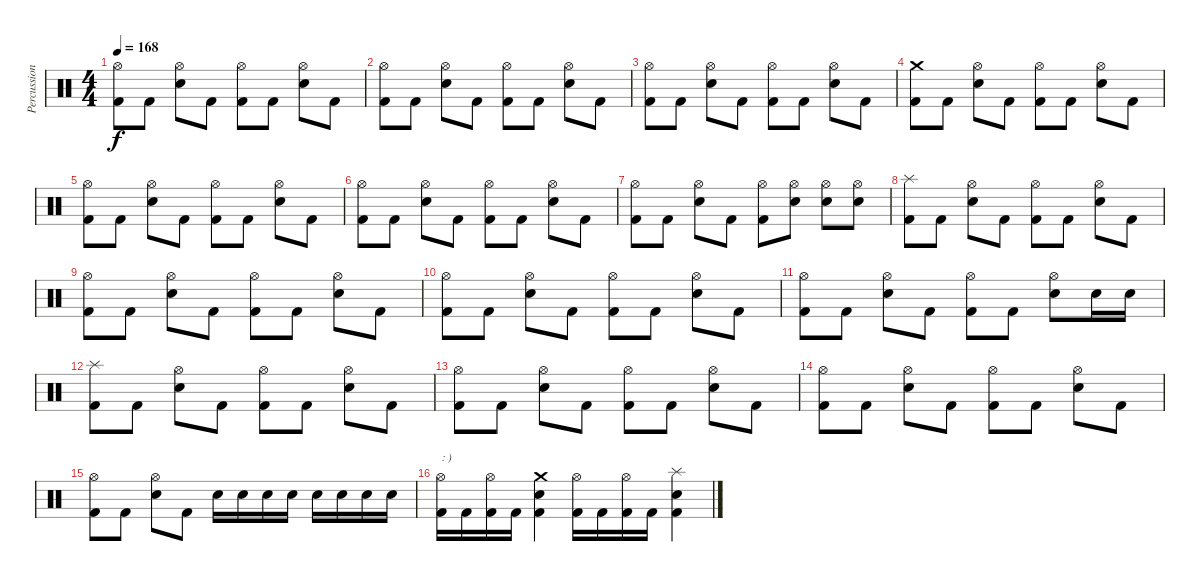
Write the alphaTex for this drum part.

\track ("Percussion" "Percussion") {instrument percussion}
\staff {score}
\articulation defaults
\ts (4 4)
\tempo 168
\clef neutral
\ks c
("Hi-Hat (open)" "Kick (hit) 2").8{dy f} "Kick (hit) 2".8 ("Hi-Hat (open)" "Snare (hit) 2").8 "Kick (hit) 2".8 ("Hi-Hat (open)" "Kick (hit) 2").8 "Kick (hit) 2".8 ("Hi-Hat (open)" "Snare (hit) 2").8 "Kick (hit) 2".8 |
("Hi-Hat (open)" "Kick (hit) 2").8 "Kick (hit) 2".8 ("Hi-Hat (open)" "Snare (hit) 2").8 "Kick (hit) 2".8 ("Hi-Hat (open)" "Kick (hit) 2").8 "Kick (hit) 2".8 ("Hi-Hat (open)" "Snare (hit) 2").8 "Kick (hit) 2".8 |
("Hi-Hat (open)" "Kick (hit) 2").8 "Kick (hit) 2".8 ("Hi-Hat (open)" "Snare (hit) 2").8 "Kick (hit) 2".8 ("Hi-Hat (open)" "Kick (hit) 2").8 "Kick (hit) 2".8 ("Hi-Hat (open)" "Snare (hit) 2").8 "Kick (hit) 2".8 |
("Crash medium (hit)" "Kick (hit) 2").8 "Kick (hit) 2".8 ("Hi-Hat (open)" "Snare (hit) 2").8 "Kick (hit) 2".8 ("Hi-Hat (open)" "Kick (hit) 2").8 "Kick (hit) 2".8 ("Hi-Hat (open)" "Snare (hit) 2").8 "Kick (hit) 2".8 |
("Hi-Hat (open)" "Kick (hit) 2").8 "Kick (hit) 2".8 ("Hi-Hat (open)" "Snare (hit) 2").8 "Kick (hit) 2".8 ("Hi-Hat (open)" "Kick (hit) 2").8 "Kick (hit) 2".8 ("Hi-Hat (open)" "Snare (hit) 2").8 "Kick (hit) 2".8 |
("Hi-Hat (open)" "Kick (hit) 2").8 "Kick (hit) 2".8 ("Hi-Hat (open)" "Snare (hit) 2").8 "Kick (hit) 2".8 ("Hi-Hat (open)" "Kick (hit) 2").8 "Kick (hit) 2".8 ("Hi-Hat (open)" "Snare (hit) 2").8 "Kick (hit) 2".8 |
("Hi-Hat (open)" "Kick (hit) 2").8 "Kick (hit) 2".8 ("Hi-Hat (open)" "Snare (hit) 2").8 "Kick (hit) 2".8 ("Hi-Hat (open)" "Kick (hit) 2").8 ("Hi-Hat (open)" "Snare (hit) 2").8 ("Hi-Hat (open)" "Snare (hit) 2").8 ("Hi-Hat (open)" "Snare (hit) 2").8 |
("Splash (hit)" "Kick (hit) 2").8 "Kick (hit) 2".8 ("Hi-Hat (open)" "Snare (hit) 2").8 "Kick (hit) 2".8 ("Hi-Hat (open)" "Kick (hit) 2").8 "Kick (hit) 2".8 ("Hi-Hat (open)" "Snare (hit) 2").8 "Kick (hit) 2".8 |
("Hi-Hat (open)" "Kick (hit) 2").8 "Kick (hit) 2".8 ("Hi-Hat (open)" "Snare (hit) 2").8 "Kick (hit) 2".8 ("Hi-Hat (open)" "Kick (hit) 2").8 "Kick (hit) 2".8 ("Hi-Hat (open)" "Snare (hit) 2").8 "Kick (hit) 2".8 |
("Hi-Hat (open)" "Kick (hit) 2").8 "Kick (hit) 2".8 ("Hi-Hat (open)" "Snare (hit) 2").8 "Kick (hit) 2".8 ("Hi-Hat (open)" "Kick (hit) 2").8 "Kick (hit) 2".8 ("Hi-Hat (open)" "Snare (hit) 2").8 "Kick (hit) 2".8 |
("Hi-Hat (open)" "Kick (hit) 2").8 "Kick (hit) 2".8 ("Hi-Hat (open)" "Snare (hit) 2").8 "Kick (hit) 2".8 ("Hi-Hat (open)" "Kick (hit) 2").8 "Kick (hit) 2".8 ("Hi-Hat (open)" "Snare (hit) 2").8 "Snare (hit) 2".16 "Snare (hit) 2".16 |
("Splash (hit)" "Kick (hit) 2").8 "Kick (hit) 2".8 ("Hi-Hat (open)" "Snare (hit) 2").8 "Kick (hit) 2".8 ("Hi-Hat (open)" "Kick (hit) 2").8 "Kick (hit) 2".8 ("Hi-Hat (open)" "Snare (hit) 2").8 "Kick (hit) 2".8 |
("Hi-Hat (open)" "Kick (hit) 2").8 "Kick (hit) 2".8 ("Hi-Hat (open)" "Snare (hit) 2").8 "Kick (hit) 2".8 ("Hi-Hat (open)" "Kick (hit) 2").8 "Kick (hit) 2".8 ("Hi-Hat (open)" "Snare (hit) 2").8 "Kick (hit) 2".8 |
("Hi-Hat (open)" "Kick (hit) 2").8 "Kick (hit) 2".8 ("Hi-Hat (open)" "Snare (hit) 2").8 "Kick (hit) 2".8 ("Hi-Hat (open)" "Kick (hit) 2").8 "Kick (hit) 2".8 ("Hi-Hat (open)" "Snare (hit) 2").8 "Kick (hit) 2".8 |
("Hi-Hat (open)" "Kick (hit) 2").8 "Kick (hit) 2".8 ("Hi-Hat (open)" "Snare (hit) 2").8 "Kick (hit) 2".8 "Snare (hit) 2".16 "Snare (hit) 2".16 "Snare (hit) 2".16 "Snare (hit) 2".16 "Snare (hit) 2".16 "Snare (hit) 2".16 "Snare (hit) 2".16 "Snare (hit) 2".16 |
("Hi-Hat (open)" "Kick (hit) 2").16{txt ": )"} "Kick (hit) 2".16 ("Hi-Hat (open)" "Kick (hit) 2").16 "Kick (hit) 2".16 ("Crash medium (hit)" "Snare (hit) 2" "Kick (hit) 2").4 ("Hi-Hat (open)" "Kick (hit) 2").16 "Kick (hit) 2".16 ("Hi-Hat (open)" "Kick (hit) 2").16 "Kick (hit) 2".16 ("Splash (hit)" "Snare (hit) 2" "Kick (hit) 2").4
